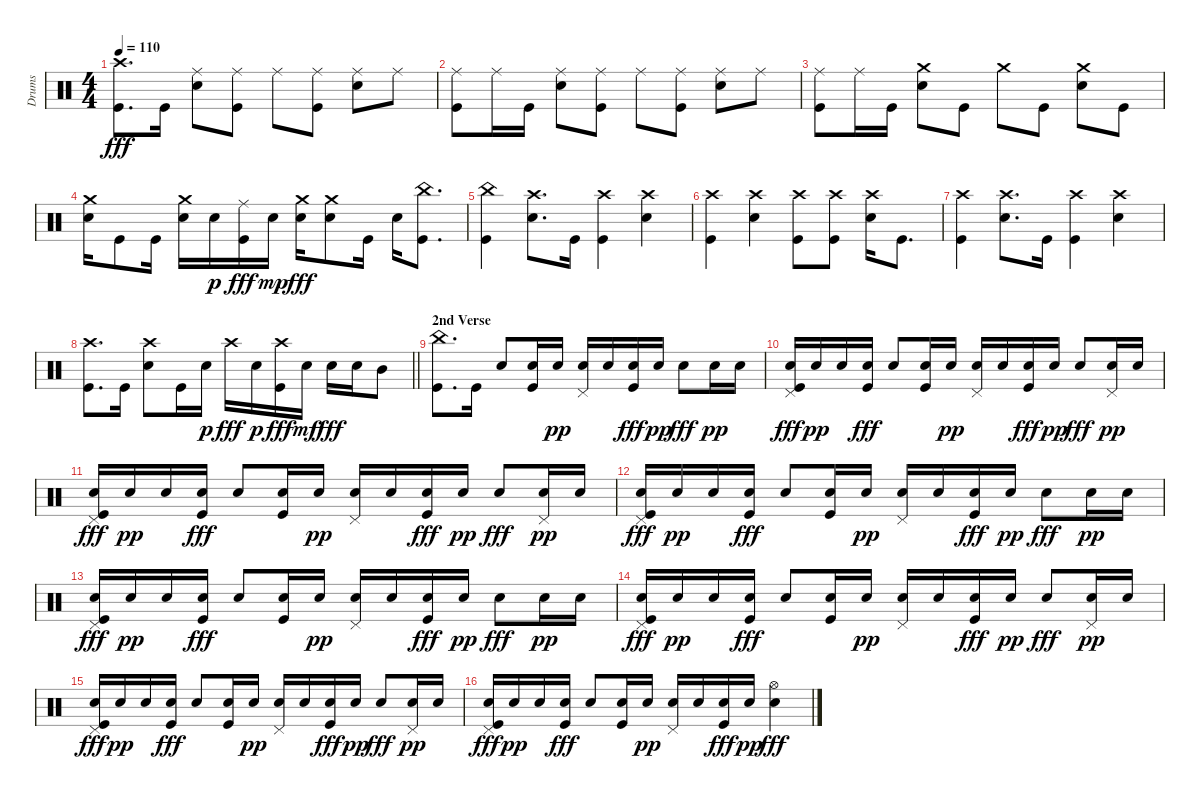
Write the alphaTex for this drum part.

\track ("Drums" "Drums") {instrument percussion}
\staff {score}
\articulation defaults
\ts (4 4)
\tempo 110
\clef neutral
\ks c
("Crash high (hit)" "Kick (hit)").8{d dy fff} "Kick (hit)".16 ("Ride (middle)" "Snare (hit) 2").8 ("Ride (middle)" "Kick (hit)").8 "Ride (middle)".8 ("Ride (middle)" "Kick (hit)").8 ("Ride (middle)" "Snare (hit) 2").8 "Ride (middle)".8 |
("Ride (middle)" "Kick (hit)").8 "Ride (middle)".16 "Kick (hit)".16 ("Ride (middle)" "Snare (hit) 2").8 ("Ride (middle)" "Kick (hit)").8 "Ride (middle)".8 ("Ride (middle)" "Kick (hit)").8 ("Ride (middle)" "Snare (hit) 2").8 "Ride (middle)".8 |
("Ride (middle)" "Kick (hit)").8 "Ride (middle)".16 "Kick (hit)".16 ("Crash medium (hit)" "Snare (hit) 2").8 "Kick (hit)".8 "Crash medium (hit)".8 "Kick (hit)".8 ("Crash medium (hit)" "Snare (hit) 2").8 "Kick (hit)".8 |
("Crash medium (hit)" "Snare (hit) 2").16 "Kick (hit)".8 "Kick (hit)".16 ("Crash medium (hit)" "Snare (hit) 2").16 "Snare (hit) 2".16{dy p} ("Ride (middle)" "Kick (hit)").16{dy fff} "Snare (hit) 2".16{dy mp} ("Crash medium (hit)" "Snare (hit) 2").16{dy fff} ("Crash medium (hit)" "Snare (hit) 2").8 "Kick (hit)".16 "Snare (hit) 2".16 ("China (hit)" "Kick (hit)").8{d} |
("China (hit)" "Kick (hit)").4 ("Crash high (hit)" "Snare (hit) 2").8{d} "Kick (hit)".16 ("Crash high (hit)" "Kick (hit)").4 ("Crash high (hit)" "Snare (hit) 2").4 |
("Crash high (hit)" "Kick (hit)").4 ("Crash high (hit)" "Snare (hit) 2").4 ("Crash high (hit)" "Kick (hit)").8 ("Crash high (hit)" "Kick (hit)").8 ("Crash high (hit)" "Snare (hit) 2").16 "Kick (hit)".8{d} |
("Crash high (hit)" "Kick (hit)").4 ("Crash high (hit)" "Snare (hit) 2").8{d} "Kick (hit)".16 ("Crash high (hit)" "Kick (hit)").4 ("Crash high (hit)" "Snare (hit) 2").4 |
\barLineRight lightlight
("Crash high (hit)" "Kick (hit)").8{d} "Kick (hit)".16 ("Crash high (hit)" "Snare (hit) 2").8 "Kick (hit)".16 "Snare (hit) 2".16{dy p} "Crash high (hit)".16{dy fff} "Snare (hit) 2".16{dy p} ("Crash high (hit)" "Kick (hit)").16{dy fff} "Snare (hit) 2".16{dy mf} "Snare (hit) 2".16{dy fff} "Snare (hit) 2".16 "Mid Tom (hit)".8 |
\section ("" "2nd Verse")
("China (hit)" "Kick (hit)").8{d} "Kick (hit)".16 "Snare (hit) 2".8 ("Snare (hit) 2" "Kick (hit)").16 "Snare (hit) 2".16{dy pp} ("Pedal Hi-Hat (hit)" "Snare (hit) 2").16 "Snare (hit) 2".16 ("Snare (hit) 2" "Kick (hit)").16{dy fff} "Snare (hit) 2".16{dy pp} "Snare (hit) 2".8{dy fff} "Snare (hit) 2".16{dy pp} "Snare (hit) 2".16 |
("Pedal Hi-Hat (hit)" "Snare (hit) 2" "Kick (hit)").16{dy fff} "Snare (hit) 2".16{dy pp} "Snare (hit) 2".16 ("Snare (hit) 2" "Kick (hit)").16{dy fff} "Snare (hit) 2".8 ("Snare (hit) 2" "Kick (hit)").16 "Snare (hit) 2".16{dy pp} ("Pedal Hi-Hat (hit)" "Snare (hit) 2").16 "Snare (hit) 2".16 ("Snare (hit) 2" "Kick (hit)").16{dy fff} "Snare (hit) 2".16{dy pp} "Snare (hit) 2".8{dy fff} ("Pedal Hi-Hat (hit)" "Snare (hit) 2").16{dy pp} "Snare (hit) 2".16 |
("Pedal Hi-Hat (hit)" "Snare (hit) 2" "Kick (hit)").16{dy fff} "Snare (hit) 2".16{dy pp} "Snare (hit) 2".16 ("Snare (hit) 2" "Kick (hit)").16{dy fff} "Snare (hit) 2".8 ("Snare (hit) 2" "Kick (hit)").16 "Snare (hit) 2".16{dy pp} ("Pedal Hi-Hat (hit)" "Snare (hit) 2").16 "Snare (hit) 2".16 ("Snare (hit) 2" "Kick (hit)").16{dy fff} "Snare (hit) 2".16{dy pp} "Snare (hit) 2".8{dy fff} ("Pedal Hi-Hat (hit)" "Snare (hit) 2").16{dy pp} "Snare (hit) 2".16 |
("Pedal Hi-Hat (hit)" "Snare (hit) 2" "Kick (hit)").16{dy fff} "Snare (hit) 2".16{dy pp} "Snare (hit) 2".16 ("Snare (hit) 2" "Kick (hit)").16{dy fff} "Snare (hit) 2".8 ("Snare (hit) 2" "Kick (hit)").16 "Snare (hit) 2".16{dy pp} ("Pedal Hi-Hat (hit)" "Snare (hit) 2").16 "Snare (hit) 2".16 ("Snare (hit) 2" "Kick (hit)").16{dy fff} "Snare (hit) 2".16{dy pp} "Snare (hit) 2".8{dy fff} "Snare (hit) 2".16{dy pp} "Snare (hit) 2".16 |
("Pedal Hi-Hat (hit)" "Snare (hit) 2" "Kick (hit)").16{dy fff} "Snare (hit) 2".16{dy pp} "Snare (hit) 2".16 ("Snare (hit) 2" "Kick (hit)").16{dy fff} "Snare (hit) 2".8 ("Snare (hit) 2" "Kick (hit)").16 "Snare (hit) 2".16{dy pp} ("Pedal Hi-Hat (hit)" "Snare (hit) 2").16 "Snare (hit) 2".16 ("Snare (hit) 2" "Kick (hit)").16{dy fff} "Snare (hit) 2".16{dy pp} "Snare (hit) 2".8{dy fff} "Snare (hit) 2".16{dy pp} "Snare (hit) 2".16 |
("Pedal Hi-Hat (hit)" "Snare (hit) 2" "Kick (hit)").16{dy fff} "Snare (hit) 2".16{dy pp} "Snare (hit) 2".16 ("Snare (hit) 2" "Kick (hit)").16{dy fff} "Snare (hit) 2".8 ("Snare (hit) 2" "Kick (hit)").16 "Snare (hit) 2".16{dy pp} ("Pedal Hi-Hat (hit)" "Snare (hit) 2").16 "Snare (hit) 2".16 ("Snare (hit) 2" "Kick (hit)").16{dy fff} "Snare (hit) 2".16{dy pp} "Snare (hit) 2".8{dy fff} ("Pedal Hi-Hat (hit)" "Snare (hit) 2").16{dy pp} "Snare (hit) 2".16 |
("Pedal Hi-Hat (hit)" "Snare (hit) 2" "Kick (hit)").16{dy fff} "Snare (hit) 2".16{dy pp} "Snare (hit) 2".16 ("Snare (hit) 2" "Kick (hit)").16{dy fff} "Snare (hit) 2".8 ("Snare (hit) 2" "Kick (hit)").16 "Snare (hit) 2".16{dy pp} ("Pedal Hi-Hat (hit)" "Snare (hit) 2").16 "Snare (hit) 2".16 ("Snare (hit) 2" "Kick (hit)").16{dy fff} "Snare (hit) 2".16{dy pp} "Snare (hit) 2".8{dy fff} ("Pedal Hi-Hat (hit)" "Snare (hit) 2").16{dy pp} "Snare (hit) 2".16 |
("Pedal Hi-Hat (hit)" "Snare (hit) 2" "Kick (hit)").16{dy fff} "Snare (hit) 2".16{dy pp} "Snare (hit) 2".16 ("Snare (hit) 2" "Kick (hit)").16{dy fff} "Snare (hit) 2".8 ("Snare (hit) 2" "Kick (hit)").16 "Snare (hit) 2".16{dy pp} ("Pedal Hi-Hat (hit)" "Snare (hit) 2").16 "Snare (hit) 2".16 ("Snare (hit) 2" "Kick (hit)").16{dy fff} "Snare (hit) 2".16{dy pp} ("Hi-Hat (open)" "Snare (hit) 2").4{dy fff}
